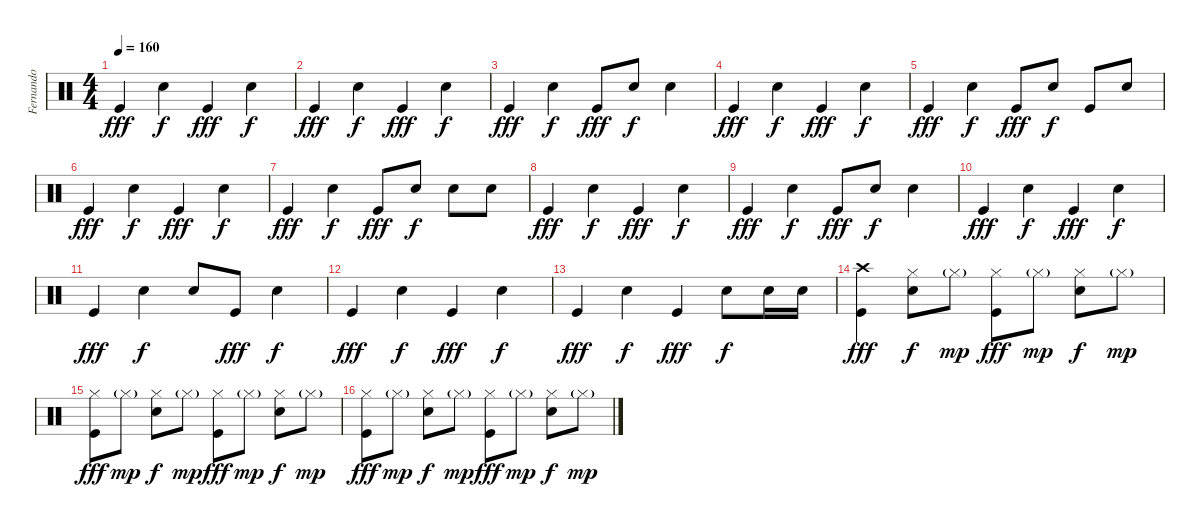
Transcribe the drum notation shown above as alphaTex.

\track ("Fernando" "Fernando") {instrument percussion}
\staff {score}
\articulation defaults
\ts (4 4)
\tempo 160
\clef neutral
\ks c "Kick (hit)".4{dy fff} "Snare (hit) 2".4{dy f} "Kick (hit)".4{dy fff} "Snare (hit) 2".4{dy f}
|
"Kick (hit)".4{dy fff} "Snare (hit) 2".4{dy f} "Kick (hit)".4{dy fff} "Snare (hit) 2".4{dy f} |
"Kick (hit)".4{dy fff} "Snare (hit) 2".4{dy f} "Kick (hit)".8{dy fff} "Snare (hit) 2".8{dy f} "Snare (hit) 2".4 |
"Kick (hit)".4{dy fff} "Snare (hit) 2".4{dy f} "Kick (hit)".4{dy fff} "Snare (hit) 2".4{dy f} |
"Kick (hit)".4{dy fff} "Snare (hit) 2".4{dy f} "Kick (hit)".8{dy fff} "Snare (hit) 2".8{dy f} "Kick (hit)".8 "Snare (hit) 2".8 |
"Kick (hit)".4{dy fff} "Snare (hit) 2".4{dy f} "Kick (hit)".4{dy fff} "Snare (hit) 2".4{dy f} |
"Kick (hit)".4{dy fff} "Snare (hit) 2".4{dy f} "Kick (hit)".8{dy fff} "Snare (hit) 2".8{dy f} "Snare (hit) 2".8 "Snare (hit) 2".8 |
"Kick (hit)".4{dy fff} "Snare (hit) 2".4{dy f} "Kick (hit)".4{dy fff} "Snare (hit) 2".4{dy f} |
"Kick (hit)".4{dy fff} "Snare (hit) 2".4{dy f} "Kick (hit)".8{dy fff} "Snare (hit) 2".8{dy f} "Snare (hit) 2".4 |
"Kick (hit)".4{dy fff} "Snare (hit) 2".4{dy f} "Kick (hit)".4{dy fff} "Snare (hit) 2".4{dy f} |
"Kick (hit)".4{dy fff} "Snare (hit) 2".4{dy f} "Snare (hit) 2".8 "Kick (hit)".8{dy fff} "Snare (hit) 2".4{dy f} |
"Kick (hit)".4{dy fff} "Snare (hit) 2".4{dy f} "Kick (hit)".4{dy fff} "Snare (hit) 2".4{dy f} |
"Kick (hit)".4{dy fff} "Snare (hit) 2".4{dy f} "Kick (hit)".4{dy fff} "Snare (hit) 2".8{dy f} "Snare (hit) 2".16 "Snare (hit) 2".16 |
("Crash high (hit)" "Kick (hit)").4{dy fff} ("Hi-Hat (closed)" "Snare (hit) 2").8{dy f} "Hi-Hat (closed)"{g}.8{dy mp} ("Hi-Hat (closed)" "Kick (hit)").8{dy fff} "Hi-Hat (closed)"{g}.8{dy mp} ("Hi-Hat (closed)" "Snare (hit) 2").8{dy f} "Hi-Hat (closed)"{g}.8{dy mp} |
("Hi-Hat (closed)" "Kick (hit)").8{dy fff} "Hi-Hat (closed)"{g}.8{dy mp} ("Hi-Hat (closed)" "Snare (hit) 2").8{dy f} "Hi-Hat (closed)"{g}.8{dy mp} ("Hi-Hat (closed)" "Kick (hit)").8{dy fff} "Hi-Hat (closed)"{g}.8{dy mp} ("Hi-Hat (closed)" "Snare (hit) 2").8{dy f} "Hi-Hat (closed)"{g}.8{dy mp} |
("Hi-Hat (closed)" "Kick (hit)").8{dy fff} "Hi-Hat (closed)"{g}.8{dy mp} ("Hi-Hat (closed)" "Snare (hit) 2").8{dy f} "Hi-Hat (closed)"{g}.8{dy mp} ("Hi-Hat (closed)" "Kick (hit)").8{dy fff} "Hi-Hat (closed)"{g}.8{dy mp} ("Hi-Hat (closed)" "Snare (hit) 2").8{dy f} "Hi-Hat (closed)"{g}.8{dy mp}
